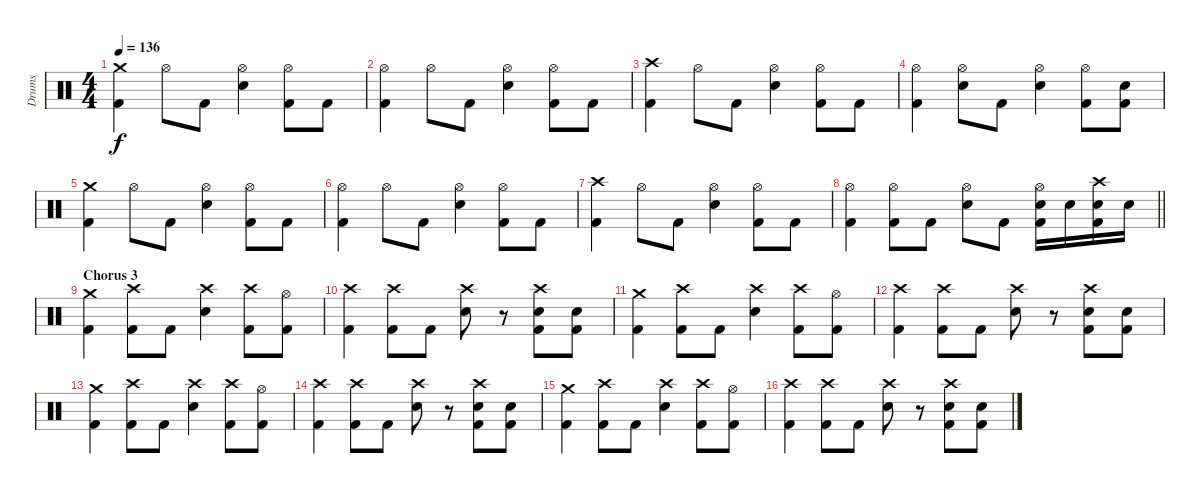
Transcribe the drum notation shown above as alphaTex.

\track ("Drums" "Drums") {instrument percussion}
\staff {score}
\articulation defaults
\ts (4 4)
\tempo 136
\clef neutral
\ks c
("Crash medium (hit)" "Kick (hit) 2").4{dy f} "Hi-Hat (open)".8 "Kick (hit) 2".8 ("Hi-Hat (open)" "Snare (hit) 2").4 ("Hi-Hat (open)" "Kick (hit) 2").8 "Kick (hit) 2".8 |
("Hi-Hat (open)" "Kick (hit) 2").4 "Hi-Hat (open)".8 "Kick (hit) 2".8 ("Hi-Hat (open)" "Snare (hit) 2").4 ("Hi-Hat (open)" "Kick (hit) 2").8 "Kick (hit) 2".8 |
("Crash high (hit)" "Kick (hit) 2").4 "Hi-Hat (open)".8 "Kick (hit) 2".8 ("Hi-Hat (open)" "Snare (hit) 2").4 ("Hi-Hat (open)" "Kick (hit) 2").8 "Kick (hit) 2".8 |
("Hi-Hat (open)" "Kick (hit) 2").4 ("Hi-Hat (open)" "Snare (hit) 2").8 "Kick (hit) 2".8 ("Hi-Hat (open)" "Snare (hit) 2").4 ("Hi-Hat (open)" "Kick (hit) 2").8 ("Snare (hit) 2" "Kick (hit) 2").8 |
("Crash medium (hit)" "Kick (hit) 2").4 "Hi-Hat (open)".8 "Kick (hit) 2".8 ("Hi-Hat (open)" "Snare (hit) 2").4 ("Hi-Hat (open)" "Kick (hit) 2").8 "Kick (hit) 2".8 |
("Hi-Hat (open)" "Kick (hit) 2").4 "Hi-Hat (open)".8 "Kick (hit) 2".8 ("Hi-Hat (open)" "Snare (hit) 2").4 ("Hi-Hat (open)" "Kick (hit) 2").8 "Kick (hit) 2".8 |
("Crash high (hit)" "Kick (hit) 2").4 "Hi-Hat (open)".8 "Kick (hit) 2".8 ("Hi-Hat (open)" "Snare (hit) 2").4 ("Hi-Hat (open)" "Kick (hit) 2").8 "Kick (hit) 2".8 |
\barLineRight lightlight
("Hi-Hat (open)" "Kick (hit) 2").4 ("Hi-Hat (open)" "Kick (hit) 2").8 "Kick (hit) 2".8 ("Hi-Hat (open)" "Snare (hit) 2").8 "Kick (hit) 2".8 ("Hi-Hat (open)" "Snare (hit) 2" "Kick (hit) 2").16 "Snare (hit) 2".16 ("Crash high (hit)" "Snare (hit) 2" "Kick (hit) 2").16 "Snare (hit) 2".16 |
\section ("" "Chorus 3")
("Crash medium (hit)" "Kick (hit) 2").4 ("Crash high (hit)" "Kick (hit) 2").8 "Kick (hit) 2".8 ("Crash high (hit)" "Snare (hit) 2").4 ("Crash high (hit)" "Kick (hit) 2").8 ("Hi-Hat (open)" "Kick (hit) 2").8 |
("Crash high (hit)" "Kick (hit) 2").4 ("Crash high (hit)" "Kick (hit) 2").8 "Kick (hit) 2".8 ("Crash high (hit)" "Snare (hit) 2").8 r.8 ("Crash high (hit)" "Snare (hit) 2" "Kick (hit) 2").8 ("Snare (hit) 2" "Kick (hit) 2").8 |
("Crash medium (hit)" "Kick (hit) 2").4 ("Crash high (hit)" "Kick (hit) 2").8 "Kick (hit) 2".8 ("Crash high (hit)" "Snare (hit) 2").4 ("Crash high (hit)" "Kick (hit) 2").8 ("Hi-Hat (open)" "Kick (hit) 2").8 |
("Crash high (hit)" "Kick (hit) 2").4 ("Crash high (hit)" "Kick (hit) 2").8 "Kick (hit) 2".8 ("Crash high (hit)" "Snare (hit) 2").8 r.8 ("Crash high (hit)" "Snare (hit) 2" "Kick (hit) 2").8 ("Snare (hit) 2" "Kick (hit) 2").8 |
("Crash medium (hit)" "Kick (hit) 2").4 ("Crash high (hit)" "Kick (hit) 2").8 "Kick (hit) 2".8 ("Crash high (hit)" "Snare (hit) 2").4 ("Crash high (hit)" "Kick (hit) 2").8 ("Hi-Hat (open)" "Kick (hit) 2").8 |
("Crash high (hit)" "Kick (hit) 2").4 ("Crash high (hit)" "Kick (hit) 2").8 "Kick (hit) 2".8 ("Crash high (hit)" "Snare (hit) 2").8 r.8 ("Crash high (hit)" "Snare (hit) 2" "Kick (hit) 2").8 ("Snare (hit) 2" "Kick (hit) 2").8 |
("Crash medium (hit)" "Kick (hit) 2").4 ("Crash high (hit)" "Kick (hit) 2").8 "Kick (hit) 2".8 ("Crash high (hit)" "Snare (hit) 2").4 ("Crash high (hit)" "Kick (hit) 2").8 ("Hi-Hat (open)" "Kick (hit) 2").8 |
("Crash high (hit)" "Kick (hit) 2").4 ("Crash high (hit)" "Kick (hit) 2").8 "Kick (hit) 2".8 ("Crash high (hit)" "Snare (hit) 2").8 r.8 ("Crash high (hit)" "Snare (hit) 2" "Kick (hit) 2").8 ("Snare (hit) 2" "Kick (hit) 2").8
